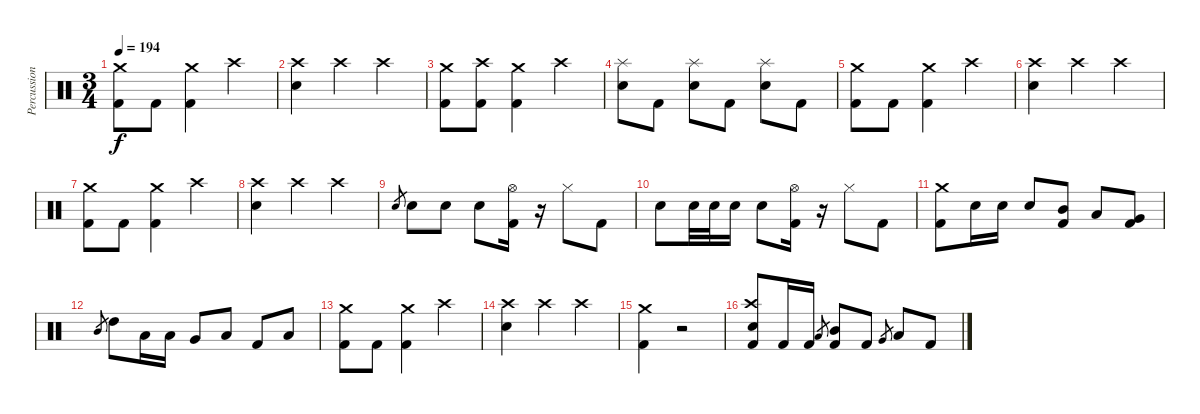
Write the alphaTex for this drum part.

\track ("Percussion" "Percussion") {instrument percussion}
\staff {score}
\articulation defaults
\ts (3 4)
\tempo 194
\clef neutral
\ks c
("Crash medium (hit)" "Kick (hit) 2").8{dy f} "Kick (hit) 2".8 ("Crash medium (hit)" "Kick (hit) 2").4 "Crash high (hit)".4 |
("Crash high (hit)" "Electric Snare (hit)").4 "Crash high (hit)".4 "Crash high (hit)".4 |
("Crash medium (hit)" "Kick (hit) 2").8 ("Crash high (hit)" "Kick (hit) 2").8 ("Crash medium (hit)" "Kick (hit) 2").4 "Crash high (hit)".4 |
("Splash (hit)" "Electric Snare (hit)").8 "Kick (hit) 2".8 ("Splash (hit)" "Electric Snare (hit)").8 "Kick (hit) 2".8 ("Splash (hit)" "Electric Snare (hit)").8 "Kick (hit) 2".8 |
("Crash medium (hit)" "Kick (hit) 2").8 "Kick (hit) 2".8 ("Crash medium (hit)" "Kick (hit) 2").4 "Crash high (hit)".4 |
("Crash high (hit)" "Electric Snare (hit)").4 "Crash high (hit)".4 "Crash high (hit)".4 |
("Crash medium (hit)" "Kick (hit) 2").8 "Kick (hit) 2".8 ("Crash medium (hit)" "Kick (hit) 2").4 "Crash high (hit)".4 |
("Crash high (hit)" "Electric Snare (hit)").4 "Crash high (hit)".4 "Crash high (hit)".4 |
"Electric Snare (hit)".8{gr} "Electric Snare (hit)".8 "Electric Snare (hit)".8 "Electric Snare (hit)".8 ("Hi-Hat (open)" "Kick (hit) 2").16 r.16 "Hi-Hat (closed)".8 "Kick (hit) 2".8 |
"Electric Snare (hit)".8 "Electric Snare (hit)".32 "Electric Snare (hit)".32 "Electric Snare (hit)".16 "Electric Snare (hit)".8 ("Hi-Hat (open)" "Kick (hit) 2").16 r.16 "Hi-Hat (closed)".8 "Kick (hit) 2".8 |
("Crash medium (hit)" "Kick (hit) 2").8 "Electric Snare (hit)".16 "Electric Snare (hit)".16 "Electric Snare (hit)".8 ("Mid Tom (hit)" "Kick (hit) 2").8 "Low Tom (hit)".8 ("Very Low Tom (hit)" "Kick (hit) 2").8 |
"Mid Tom (hit)".8{gr} "High Tom (hit)".8 "Low Tom (hit)".16 "Low Tom (hit)".16 "Very Low Tom (hit)".8 "Low Floor Tom (hit)".8 "Kick (hit) 2".8 "Low Floor Tom (hit)".8 |
("Crash medium (hit)" "Kick (hit) 2").8 "Kick (hit) 2".8 ("Crash medium (hit)" "Kick (hit) 2").4 "Crash high (hit)".4 |
("Crash high (hit)" "Electric Snare (hit)").4 "Crash high (hit)".4 "Crash high (hit)".4 |
("Crash medium (hit)" "Kick (hit) 2").4 r.2{volume 0} |
("Crash high (hit)" "Electric Snare (hit)" "Kick (hit) 2").8{volume 13} "Kick (hit) 2".16 "Kick (hit) 2".16 "Low Tom (hit)".8{gr} ("Mid Tom (hit)" "Kick (hit) 2").8 "Kick (hit) 2".8 "Very Low Tom (hit)".8{gr} "Low Tom (hit)".8 "Kick (hit) 2".8
